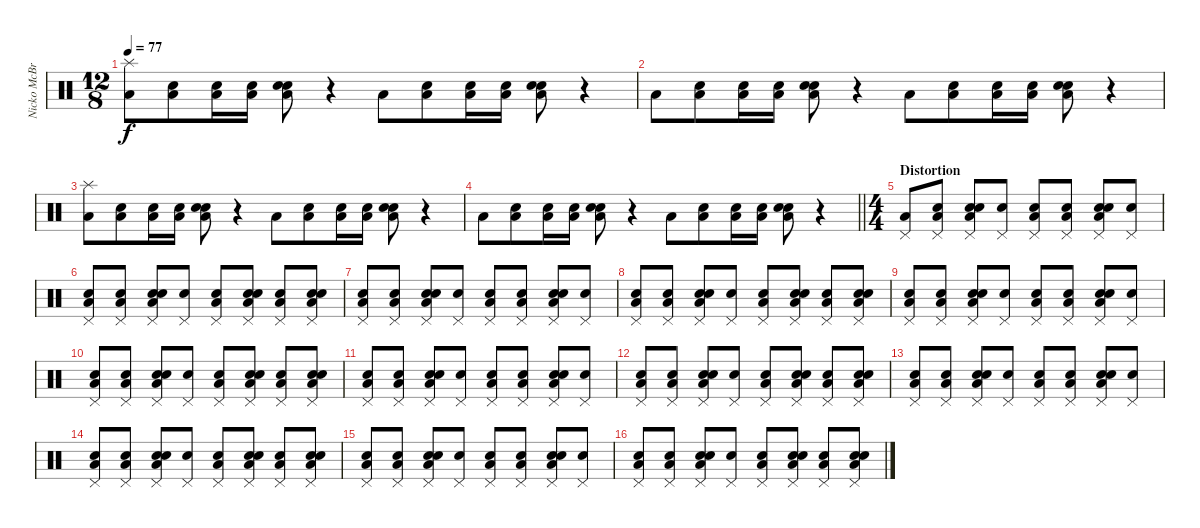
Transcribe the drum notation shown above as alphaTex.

\track ("Nicko McBrain" "Nicko McBr") {instrument percussion}
\staff {score}
\articulation defaults
\ts (12 8)
\tempo 77
\clef neutral
\ks c
("Low Floor Tom (hit)" "Splash (hit)").8{dy f} ("Snare (hit)" "Low Floor Tom (hit)").8 ("Snare (hit)" "Low Floor Tom (hit)").16 ("Snare (hit)" "Low Floor Tom (hit)").16 ("Snare (hit)" "Electric Snare (hit)" "Low Floor Tom (hit)").8 r.4 "Low Floor Tom (hit)".8 ("Snare (hit)" "Low Floor Tom (hit)").8 ("Snare (hit)" "Low Floor Tom (hit)").16 ("Snare (hit)" "Low Floor Tom (hit)").16 ("Snare (hit)" "Electric Snare (hit)" "Low Floor Tom (hit)").8 r.4 |
"Low Floor Tom (hit)".8 ("Snare (hit)" "Low Floor Tom (hit)").8 ("Snare (hit)" "Low Floor Tom (hit)").16 ("Snare (hit)" "Low Floor Tom (hit)").16 ("Snare (hit)" "Electric Snare (hit)" "Low Floor Tom (hit)").8 r.4 "Low Floor Tom (hit)".8 ("Snare (hit)" "Low Floor Tom (hit)").8 ("Snare (hit)" "Low Floor Tom (hit)").16 ("Snare (hit)" "Low Floor Tom (hit)").16 ("Snare (hit)" "Electric Snare (hit)" "Low Floor Tom (hit)").8 r.4 |
("Low Floor Tom (hit)" "Splash (hit)").8 ("Snare (hit)" "Low Floor Tom (hit)").8 ("Snare (hit)" "Low Floor Tom (hit)").16 ("Snare (hit)" "Low Floor Tom (hit)").16 ("Snare (hit)" "Electric Snare (hit)" "Low Floor Tom (hit)").8 r.4 "Low Floor Tom (hit)".8 ("Snare (hit)" "Low Floor Tom (hit)").8 ("Snare (hit)" "Low Floor Tom (hit)").16 ("Snare (hit)" "Low Floor Tom (hit)").16 ("Snare (hit)" "Electric Snare (hit)" "Low Floor Tom (hit)").8 r.4 |
\barLineRight lightlight "Low Floor Tom (hit)".8
("Snare (hit)" "Low Floor Tom (hit)").8 ("Snare (hit)" "Low Floor Tom (hit)").16 ("Snare (hit)" "Low Floor Tom (hit)").16 ("Snare (hit)" "Electric Snare (hit)" "Low Floor Tom (hit)").8 r.4 "Low Floor Tom (hit)".8 ("Snare (hit)" "Low Floor Tom (hit)").8 ("Snare (hit)" "Low Floor Tom (hit)").16 ("Snare (hit)" "Low Floor Tom (hit)").16 ("Snare (hit)" "Electric Snare (hit)" "Low Floor Tom (hit)").8 r.4 |
\ts (4 4)
\section ("" "Distortion")
("Low Floor Tom (hit)" "Pedal Hi-Hat (hit)").8 ("Snare (hit)" "Low Floor Tom (hit)" "Pedal Hi-Hat (hit)").8 ("Snare (hit)" "Electric Snare (hit)" "Low Floor Tom (hit)" "Pedal Hi-Hat (hit)").8 ("Snare (hit)" "Pedal Hi-Hat (hit)").8 ("Snare (hit)" "Low Floor Tom (hit)" "Pedal Hi-Hat (hit)").8 ("Snare (hit)" "Low Floor Tom (hit)" "Pedal Hi-Hat (hit)").8 ("Snare (hit)" "Electric Snare (hit)" "Low Floor Tom (hit)" "Pedal Hi-Hat (hit)").8 ("Snare (hit)" "Pedal Hi-Hat (hit)").8 |
("Snare (hit)" "Low Floor Tom (hit)" "Pedal Hi-Hat (hit)").8 ("Snare (hit)" "Low Floor Tom (hit)" "Pedal Hi-Hat (hit)").8 ("Snare (hit)" "Electric Snare (hit)" "Low Floor Tom (hit)" "Pedal Hi-Hat (hit)").8 ("Snare (hit)" "Pedal Hi-Hat (hit)").8 ("Snare (hit)" "Low Floor Tom (hit)" "Pedal Hi-Hat (hit)").8 ("Snare (hit)" "Electric Snare (hit)" "Low Floor Tom (hit)" "Pedal Hi-Hat (hit)").8 ("Snare (hit)" "Low Floor Tom (hit)" "Pedal Hi-Hat (hit)").8 ("Snare (hit)" "Electric Snare (hit)" "Low Floor Tom (hit)" "Pedal Hi-Hat (hit)").8 |
("Snare (hit)" "Low Floor Tom (hit)" "Pedal Hi-Hat (hit)").8 ("Snare (hit)" "Low Floor Tom (hit)" "Pedal Hi-Hat (hit)").8 ("Snare (hit)" "Electric Snare (hit)" "Low Floor Tom (hit)" "Pedal Hi-Hat (hit)").8 ("Snare (hit)" "Pedal Hi-Hat (hit)").8 ("Snare (hit)" "Low Floor Tom (hit)" "Pedal Hi-Hat (hit)").8 ("Snare (hit)" "Low Floor Tom (hit)" "Pedal Hi-Hat (hit)").8 ("Snare (hit)" "Electric Snare (hit)" "Low Floor Tom (hit)" "Pedal Hi-Hat (hit)").8 ("Snare (hit)" "Pedal Hi-Hat (hit)").8 |
("Snare (hit)" "Low Floor Tom (hit)" "Pedal Hi-Hat (hit)").8 ("Snare (hit)" "Low Floor Tom (hit)" "Pedal Hi-Hat (hit)").8 ("Snare (hit)" "Electric Snare (hit)" "Low Floor Tom (hit)" "Pedal Hi-Hat (hit)").8 ("Snare (hit)" "Pedal Hi-Hat (hit)").8 ("Snare (hit)" "Low Floor Tom (hit)" "Pedal Hi-Hat (hit)").8 ("Snare (hit)" "Electric Snare (hit)" "Low Floor Tom (hit)" "Pedal Hi-Hat (hit)").8 ("Snare (hit)" "Low Floor Tom (hit)" "Pedal Hi-Hat (hit)").8 ("Snare (hit)" "Electric Snare (hit)" "Low Floor Tom (hit)" "Pedal Hi-Hat (hit)").8 |
("Snare (hit)" "Low Floor Tom (hit)" "Pedal Hi-Hat (hit)").8 ("Snare (hit)" "Low Floor Tom (hit)" "Pedal Hi-Hat (hit)").8 ("Snare (hit)" "Electric Snare (hit)" "Low Floor Tom (hit)" "Pedal Hi-Hat (hit)").8 ("Snare (hit)" "Pedal Hi-Hat (hit)").8 ("Snare (hit)" "Low Floor Tom (hit)" "Pedal Hi-Hat (hit)").8 ("Snare (hit)" "Low Floor Tom (hit)" "Pedal Hi-Hat (hit)").8 ("Snare (hit)" "Electric Snare (hit)" "Low Floor Tom (hit)" "Pedal Hi-Hat (hit)").8 ("Snare (hit)" "Pedal Hi-Hat (hit)").8 |
("Snare (hit)" "Low Floor Tom (hit)" "Pedal Hi-Hat (hit)").8 ("Snare (hit)" "Low Floor Tom (hit)" "Pedal Hi-Hat (hit)").8 ("Snare (hit)" "Electric Snare (hit)" "Low Floor Tom (hit)" "Pedal Hi-Hat (hit)").8 ("Snare (hit)" "Pedal Hi-Hat (hit)").8 ("Snare (hit)" "Low Floor Tom (hit)" "Pedal Hi-Hat (hit)").8 ("Snare (hit)" "Electric Snare (hit)" "Low Floor Tom (hit)" "Pedal Hi-Hat (hit)").8 ("Snare (hit)" "Low Floor Tom (hit)" "Pedal Hi-Hat (hit)").8 ("Snare (hit)" "Electric Snare (hit)" "Low Floor Tom (hit)" "Pedal Hi-Hat (hit)").8 |
("Snare (hit)" "Low Floor Tom (hit)" "Pedal Hi-Hat (hit)").8 ("Snare (hit)" "Low Floor Tom (hit)" "Pedal Hi-Hat (hit)").8 ("Snare (hit)" "Electric Snare (hit)" "Low Floor Tom (hit)" "Pedal Hi-Hat (hit)").8 ("Snare (hit)" "Pedal Hi-Hat (hit)").8 ("Snare (hit)" "Low Floor Tom (hit)" "Pedal Hi-Hat (hit)").8 ("Snare (hit)" "Low Floor Tom (hit)" "Pedal Hi-Hat (hit)").8 ("Snare (hit)" "Electric Snare (hit)" "Low Floor Tom (hit)" "Pedal Hi-Hat (hit)").8 ("Snare (hit)" "Pedal Hi-Hat (hit)").8 |
("Snare (hit)" "Low Floor Tom (hit)" "Pedal Hi-Hat (hit)").8 ("Snare (hit)" "Low Floor Tom (hit)" "Pedal Hi-Hat (hit)").8 ("Snare (hit)" "Electric Snare (hit)" "Low Floor Tom (hit)" "Pedal Hi-Hat (hit)").8 ("Snare (hit)" "Pedal Hi-Hat (hit)").8 ("Snare (hit)" "Low Floor Tom (hit)" "Pedal Hi-Hat (hit)").8 ("Snare (hit)" "Electric Snare (hit)" "Low Floor Tom (hit)" "Pedal Hi-Hat (hit)").8 ("Snare (hit)" "Low Floor Tom (hit)" "Pedal Hi-Hat (hit)").8 ("Snare (hit)" "Electric Snare (hit)" "Low Floor Tom (hit)" "Pedal Hi-Hat (hit)").8 |
("Snare (hit)" "Low Floor Tom (hit)" "Pedal Hi-Hat (hit)").8 ("Snare (hit)" "Low Floor Tom (hit)" "Pedal Hi-Hat (hit)").8 ("Snare (hit)" "Electric Snare (hit)" "Low Floor Tom (hit)" "Pedal Hi-Hat (hit)").8 ("Snare (hit)" "Pedal Hi-Hat (hit)").8 ("Snare (hit)" "Low Floor Tom (hit)" "Pedal Hi-Hat (hit)").8 ("Snare (hit)" "Low Floor Tom (hit)" "Pedal Hi-Hat (hit)").8 ("Snare (hit)" "Electric Snare (hit)" "Low Floor Tom (hit)" "Pedal Hi-Hat (hit)").8 ("Snare (hit)" "Pedal Hi-Hat (hit)").8 |
("Snare (hit)" "Low Floor Tom (hit)" "Pedal Hi-Hat (hit)").8 ("Snare (hit)" "Low Floor Tom (hit)" "Pedal Hi-Hat (hit)").8 ("Snare (hit)" "Electric Snare (hit)" "Low Floor Tom (hit)" "Pedal Hi-Hat (hit)").8 ("Snare (hit)" "Pedal Hi-Hat (hit)").8 ("Snare (hit)" "Low Floor Tom (hit)" "Pedal Hi-Hat (hit)").8 ("Snare (hit)" "Electric Snare (hit)" "Low Floor Tom (hit)" "Pedal Hi-Hat (hit)").8 ("Snare (hit)" "Low Floor Tom (hit)" "Pedal Hi-Hat (hit)").8 ("Snare (hit)" "Electric Snare (hit)" "Low Floor Tom (hit)" "Pedal Hi-Hat (hit)").8 |
("Snare (hit)" "Low Floor Tom (hit)" "Pedal Hi-Hat (hit)").8 ("Snare (hit)" "Low Floor Tom (hit)" "Pedal Hi-Hat (hit)").8 ("Snare (hit)" "Electric Snare (hit)" "Low Floor Tom (hit)" "Pedal Hi-Hat (hit)").8 ("Snare (hit)" "Pedal Hi-Hat (hit)").8 ("Snare (hit)" "Low Floor Tom (hit)" "Pedal Hi-Hat (hit)").8 ("Snare (hit)" "Low Floor Tom (hit)" "Pedal Hi-Hat (hit)").8 ("Snare (hit)" "Electric Snare (hit)" "Low Floor Tom (hit)" "Pedal Hi-Hat (hit)").8 ("Snare (hit)" "Pedal Hi-Hat (hit)").8 |
("Snare (hit)" "Low Floor Tom (hit)" "Pedal Hi-Hat (hit)").8 ("Snare (hit)" "Low Floor Tom (hit)" "Pedal Hi-Hat (hit)").8 ("Snare (hit)" "Electric Snare (hit)" "Low Floor Tom (hit)" "Pedal Hi-Hat (hit)").8 ("Snare (hit)" "Pedal Hi-Hat (hit)").8 ("Snare (hit)" "Low Floor Tom (hit)" "Pedal Hi-Hat (hit)").8 ("Snare (hit)" "Electric Snare (hit)" "Low Floor Tom (hit)" "Pedal Hi-Hat (hit)").8 ("Snare (hit)" "Low Floor Tom (hit)" "Pedal Hi-Hat (hit)").8 ("Snare (hit)" "Electric Snare (hit)" "Low Floor Tom (hit)" "Pedal Hi-Hat (hit)").8
